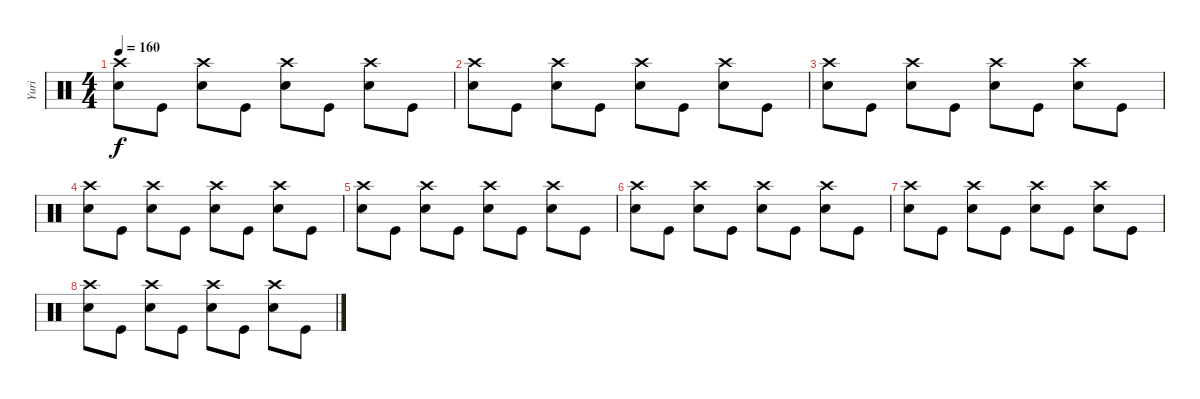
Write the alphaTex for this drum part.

\track ("Yuri" "Yuri") {instrument percussion}
\staff {score}
\articulation defaults
\ts (4 4)
\tempo 160
\clef neutral
\ks c
("Crash high (hit)" "Snare (hit) 2").8{dy f} "Kick (hit)".8 ("Crash high (hit)" "Snare (hit) 2").8 "Kick (hit)".8 ("Crash high (hit)" "Snare (hit) 2").8 "Kick (hit)".8 ("Crash high (hit)" "Snare (hit) 2").8 "Kick (hit)".8 |
("Crash high (hit)" "Snare (hit) 2").8 "Kick (hit)".8 ("Crash high (hit)" "Snare (hit) 2").8 "Kick (hit)".8 ("Crash high (hit)" "Snare (hit) 2").8 "Kick (hit)".8 ("Crash high (hit)" "Snare (hit) 2").8 "Kick (hit)".8 |
("Crash high (hit)" "Snare (hit) 2").8 "Kick (hit)".8 ("Crash high (hit)" "Snare (hit) 2").8 "Kick (hit)".8 ("Crash high (hit)" "Snare (hit) 2").8 "Kick (hit)".8 ("Crash high (hit)" "Snare (hit) 2").8 "Kick (hit)".8 |
("Crash high (hit)" "Snare (hit) 2").8 "Kick (hit)".8 ("Crash high (hit)" "Snare (hit) 2").8 "Kick (hit)".8 ("Crash high (hit)" "Snare (hit) 2").8 "Kick (hit)".8 ("Crash high (hit)" "Snare (hit) 2").8 "Kick (hit)".8 |
("Crash high (hit)" "Snare (hit) 2").8 "Kick (hit)".8 ("Crash high (hit)" "Snare (hit) 2").8 "Kick (hit)".8 ("Crash high (hit)" "Snare (hit) 2").8 "Kick (hit)".8 ("Crash high (hit)" "Snare (hit) 2").8 "Kick (hit)".8 |
("Crash high (hit)" "Snare (hit) 2").8 "Kick (hit)".8 ("Crash high (hit)" "Snare (hit) 2").8 "Kick (hit)".8 ("Crash high (hit)" "Snare (hit) 2").8 "Kick (hit)".8 ("Crash high (hit)" "Snare (hit) 2").8 "Kick (hit)".8 |
("Crash high (hit)" "Snare (hit) 2").8 "Kick (hit)".8 ("Crash high (hit)" "Snare (hit) 2").8 "Kick (hit)".8 ("Crash high (hit)" "Snare (hit) 2").8 "Kick (hit)".8 ("Crash high (hit)" "Snare (hit) 2").8 "Kick (hit)".8 |
("Crash high (hit)" "Snare (hit) 2").8 "Kick (hit)".8 ("Crash high (hit)" "Snare (hit) 2").8 "Kick (hit)".8 ("Crash high (hit)" "Snare (hit) 2").8 "Kick (hit)".8 ("Crash high (hit)" "Snare (hit) 2").8 "Kick (hit)".8
